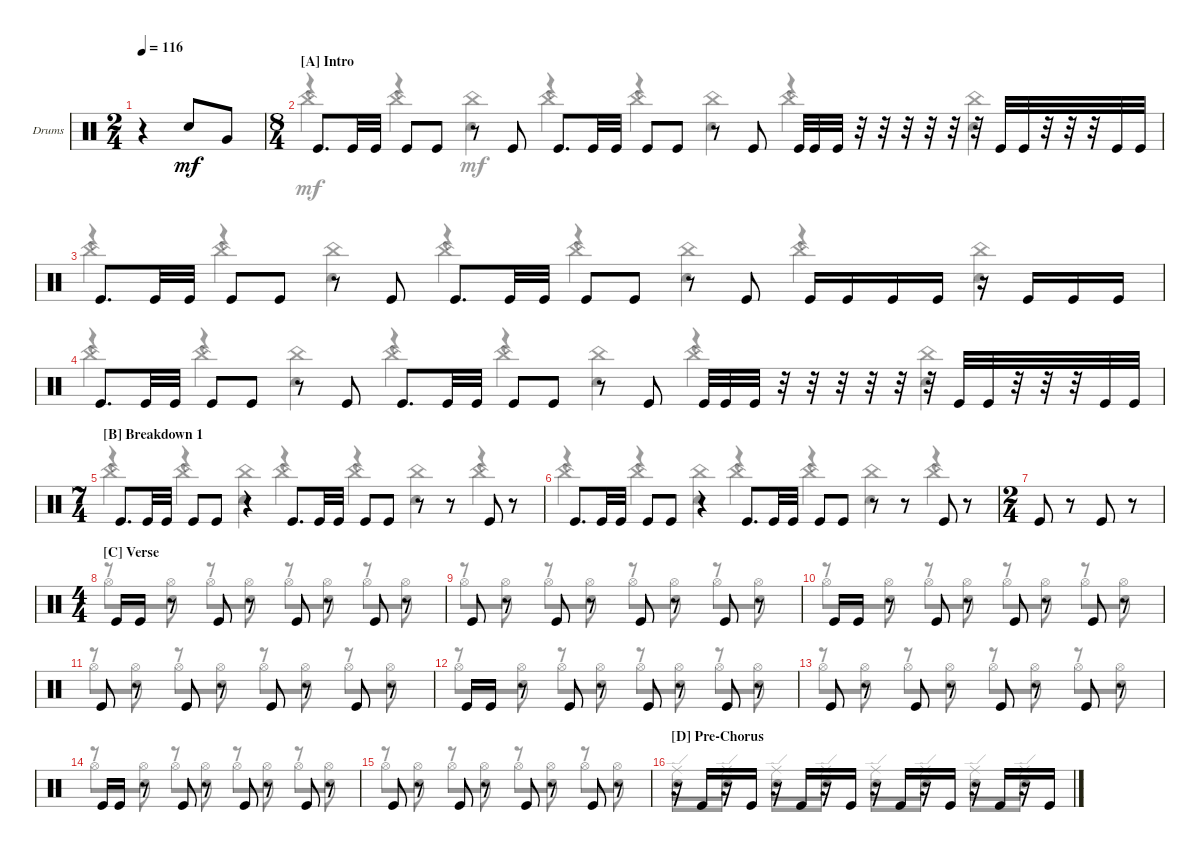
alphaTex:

\defaultSystemsLayout 4
\bracketExtendMode groupsimilarinstruments
\firstSystemTrackNameOrientation horizontal
\otherSystemsTrackNameOrientation horizontal
\track ("Drumkit" "Drums") {instrument percussion}
\staff {score}
\articulation defaults
\voice
\ts (2 4)
\tempo 116
\clef neutral
\ks c
r.4{dy mf} "Snare (hit) 2".8 "Very Low Tom (hit)".8 |
\ts (8 4)
\section ("A" "Intro")
"Kick (hit)".8{d} "Kick (hit)".32 "Kick (hit)".32 "Kick (hit)".8 "Kick (hit)".8 r.8 "Kick (hit)".8 "Kick (hit)".8{d} "Kick (hit)".32 "Kick (hit)".32 "Kick (hit)".8 "Kick (hit)".8 r.8 "Kick (hit)".8 "Kick (hit)".32 "Kick (hit)".32 "Kick (hit)".32 r.32 r.32 r.32 r.32 r.32 r.32 "Kick (hit)".32 "Kick (hit)".32 r.32 r.32 r.32 "Kick (hit)".32 "Kick (hit)".32 |
"Kick (hit)".8{d} "Kick (hit)".32 "Kick (hit)".32 "Kick (hit)".8 "Kick (hit)".8 r.8 "Kick (hit)".8 "Kick (hit)".8{d} "Kick (hit)".32 "Kick (hit)".32 "Kick (hit)".8 "Kick (hit)".8 r.8 "Kick (hit)".8 "Kick (hit)".16 "Kick (hit)".16 "Kick (hit)".16 "Kick (hit)".16 r.16 "Kick (hit)".16 "Kick (hit)".16 "Kick (hit)".16 |
"Kick (hit)".8{d} "Kick (hit)".32 "Kick (hit)".32 "Kick (hit)".8 "Kick (hit)".8 r.8 "Kick (hit)".8 "Kick (hit)".8{d} "Kick (hit)".32 "Kick (hit)".32 "Kick (hit)".8 "Kick (hit)".8 r.8 "Kick (hit)".8 "Kick (hit)".32 "Kick (hit)".32 "Kick (hit)".32 r.32 r.32 r.32 r.32 r.32 r.32 "Kick (hit)".32 "Kick (hit)".32 r.32 r.32 r.32 "Kick (hit)".32 "Kick (hit)".32 |
\ts (7 4)
\section ("B" "Breakdown 1")
"Kick (hit)".8{d} "Kick (hit)".32 "Kick (hit)".32 "Kick (hit)".8 "Kick (hit)".8 r.4 "Kick (hit)".8{d} "Kick (hit)".32 "Kick (hit)".32 "Kick (hit)".8 "Kick (hit)".8 r.8 r.8 "Kick (hit)".8 r.8 |
"Kick (hit)".8{d} "Kick (hit)".32 "Kick (hit)".32 "Kick (hit)".8 "Kick (hit)".8 r.4 "Kick (hit)".8{d} "Kick (hit)".32 "Kick (hit)".32 "Kick (hit)".8 "Kick (hit)".8 r.8 r.8 "Kick (hit)".8 r.8 |
\ts (2 4)
"Kick (hit)".8 r.8 "Kick (hit)".8 r.8 |
\ts (4 4)
\section ("C" "Verse")
"Kick (hit)".16 "Kick (hit)".16 r.8 "Kick (hit)".8 r.8 "Kick (hit)".8 r.8 "Kick (hit)".8 r.8 |
"Kick (hit)".8 r.8 "Kick (hit)".8 r.8 "Kick (hit)".8 r.8 "Kick (hit)".8 r.8 |
"Kick (hit)".16 "Kick (hit)".16 r.8 "Kick (hit)".8 r.8 "Kick (hit)".8 r.8 "Kick (hit)".8 r.8 |
"Kick (hit)".8 r.8 "Kick (hit)".8 r.8 "Kick (hit)".8 r.8 "Kick (hit)".8 r.8 |
"Kick (hit)".16 "Kick (hit)".16 r.8 "Kick (hit)".8 r.8 "Kick (hit)".8 r.8 "Kick (hit)".8 r.8 |
"Kick (hit)".8 r.8 "Kick (hit)".8 r.8 "Kick (hit)".8 r.8 "Kick (hit)".8 r.8 |
"Kick (hit)".16 "Kick (hit)".16 r.8 "Kick (hit)".8 r.8 "Kick (hit)".8 r.8 "Kick (hit)".8 r.8 |
"Kick (hit)".8 r.8 "Kick (hit)".8 r.8 "Kick (hit)".8 r.8 "Kick (hit)".8 r.8 |
\section ("D" "Pre-Chorus")
r.16 "Kick (hit)".16 r.16 "Kick (hit)".16 r.16 "Kick (hit)".16 r.16 "Kick (hit)".16 r.16 "Kick (hit)".16 r.16 "Kick (hit)".16 r.16 "Kick (hit)".16 r.16 "Kick (hit)".16
\voice
\clef neutral
\ottava regular
\simile none
\ks c
|
r.4 r.4 "Snare (hit) 2".4 r.4 r.4 "Snare (hit) 2".4 r.4 "Snare (hit) 2".4 |
r.4 r.4 "Snare (hit) 2".4 r.4 r.4 "Snare (hit) 2".4 r.4 "Snare (hit) 2".4 |
r.4 r.4 "Snare (hit) 2".4 r.4 r.4 "Snare (hit) 2".4 r.4 "Snare (hit) 2".4 |
r.4 r.4 "Snare (hit) 2".4 r.4 r.4 "Snare (hit) 2".4 r.4 |
r.4 r.4 "Snare (hit) 2".4 r.4 r.4 "Snare (hit) 2".4 r.4 |
|
r.8 "Snare (hit) 2".8 r.8 "Snare (hit) 2".8 r.8 "Snare (hit) 2".8 r.8 "Snare (hit) 2".8 |
r.8 "Snare (hit) 2".8 r.8 "Snare (hit) 2".8 r.8 "Snare (hit) 2".8 r.8 "Snare (hit) 2".8 |
r.8 "Snare (hit) 2".8 r.8 "Snare (hit) 2".8 r.8 "Snare (hit) 2".8 r.8 "Snare (hit) 2".8 |
r.8 "Snare (hit) 2".8 r.8 "Snare (hit) 2".8 r.8 "Snare (hit) 2".8 r.8 "Snare (hit) 2".8 |
r.8 "Snare (hit) 2".8 r.8 "Snare (hit) 2".8 r.8 "Snare (hit) 2".8 r.8 "Snare (hit) 2".8 |
r.8 "Snare (hit) 2".8 r.8 "Snare (hit) 2".8 r.8 "Snare (hit) 2".8 r.8 "Snare (hit) 2".8 |
r.8 "Snare (hit) 2".8 r.8 "Snare (hit) 2".8 r.8 "Snare (hit) 2".8 r.8 "Snare (hit) 2".8 |
r.8 "Snare (hit) 2".8 r.8 "Snare (hit) 2".8 r.8 "Snare (hit) 2".8 r.8 "Snare (hit) 2".8 |
"Snare (hit) 2".8 "Snare (hit) 2".8 "Snare (hit) 2".8 "Snare (hit) 2".8 "Snare (hit) 2".8 "Snare (hit) 2".8 "Snare (hit) 2".8 "Snare (hit) 2".8
\voice
\clef neutral
\ottava regular
\simile none
\ks c
|
"China (hit)".4 "China (hit)".4 "China (hit)".4 "China (hit)".4 "China (hit)".4 "China (hit)".4 "China (hit)".4 "China (hit)".4 |
"China (hit)".4 "China (hit)".4 "China (hit)".4 "China (hit)".4 "China (hit)".4 "China (hit)".4 "China (hit)".4 "China (hit)".4 |
"China (hit)".4 "China (hit)".4 "China (hit)".4 "China (hit)".4 "China (hit)".4 "China (hit)".4 "China (hit)".4 "China (hit)".4 |
"China (hit)".4 "China (hit)".4 "China (hit)".4 "China (hit)".4 "China (hit)".4 "China (hit)".4 "China (hit)".4 |
"China (hit)".4 "China (hit)".4 "China (hit)".4 "China (hit)".4 "China (hit)".4 "China (hit)".4 "China (hit)".4 |
|
"Hi-Hat (open)".8 "Hi-Hat (open)".8 "Hi-Hat (open)".8 "Hi-Hat (open)".8 "Hi-Hat (open)".8 "Hi-Hat (open)".8 "Hi-Hat (open)".8 "Hi-Hat (open)".8 |
"Hi-Hat (open)".8 "Hi-Hat (open)".8 "Hi-Hat (open)".8 "Hi-Hat (open)".8 "Hi-Hat (open)".8 "Hi-Hat (open)".8 "Hi-Hat (open)".8 "Hi-Hat (open)".8 |
"Hi-Hat (open)".8 "Hi-Hat (open)".8 "Hi-Hat (open)".8 "Hi-Hat (open)".8 "Hi-Hat (open)".8 "Hi-Hat (open)".8 "Hi-Hat (open)".8 "Hi-Hat (open)".8 |
"Hi-Hat (open)".8 "Hi-Hat (open)".8 "Hi-Hat (open)".8 "Hi-Hat (open)".8 "Hi-Hat (open)".8 "Hi-Hat (open)".8 "Hi-Hat (open)".8 "Hi-Hat (open)".8 |
"Hi-Hat (open)".8 "Hi-Hat (open)".8 "Hi-Hat (open)".8 "Hi-Hat (open)".8 "Hi-Hat (open)".8 "Hi-Hat (open)".8 "Hi-Hat (open)".8 "Hi-Hat (open)".8 |
"Hi-Hat (open)".8 "Hi-Hat (open)".8 "Hi-Hat (open)".8 "Hi-Hat (open)".8 "Hi-Hat (open)".8 "Hi-Hat (open)".8 "Hi-Hat (open)".8 "Hi-Hat (open)".8 |
"Hi-Hat (open)".8 "Hi-Hat (open)".8 "Hi-Hat (open)".8 "Hi-Hat (open)".8 "Hi-Hat (open)".8 "Hi-Hat (open)".8 "Hi-Hat (open)".8 "Hi-Hat (open)".8 |
"Hi-Hat (open)".8 "Hi-Hat (open)".8 "Hi-Hat (open)".8 "Hi-Hat (open)".8 "Hi-Hat (open)".8 "Hi-Hat (open)".8 "Hi-Hat (open)".8 "Hi-Hat (open)".8 |
"Ride (edge)".8 "Ride (edge)".8 "Ride (edge)".8 "Ride (edge)".8 "Ride (edge)".8 "Ride (edge)".8 "Ride (edge)".8 "Ride (edge)".8
